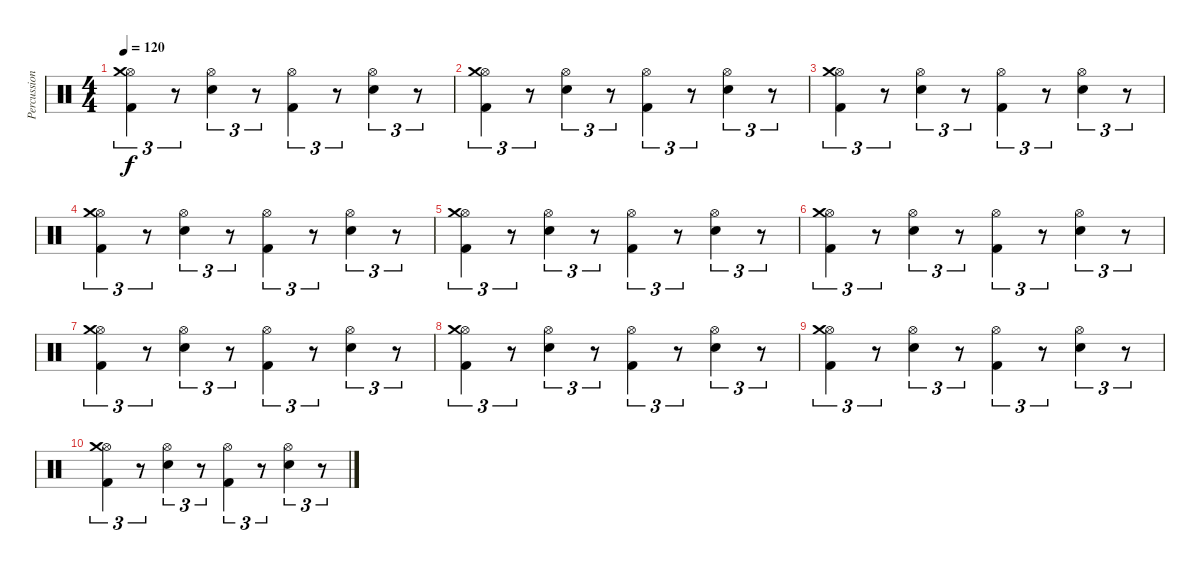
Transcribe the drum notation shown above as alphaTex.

\track ("Percussioni" "Percussion") {instrument percussion}
\staff {score}
\articulation defaults
\ts (4 4)
\tempo 120
\clef neutral
\ks c
("Kick (hit) 2" "Hi-Hat (open)" "Crash medium (hit)").4{tu (3 2) dy f} r.8{tu (3 2)} ("Electric Snare (hit)" "Hi-Hat (open)").4{tu (3 2)} r.8{tu (3 2)} ("Kick (hit) 2" "Hi-Hat (open)").4{tu (3 2)} r.8{tu (3 2)} ("Electric Snare (hit)" "Hi-Hat (open)").4{tu (3 2)} r.8{tu (3 2)} |
("Kick (hit) 2" "Hi-Hat (open)" "Crash medium (hit)").4{tu (3 2)} r.8{tu (3 2)} ("Electric Snare (hit)" "Hi-Hat (open)").4{tu (3 2)} r.8{tu (3 2)} ("Kick (hit) 2" "Hi-Hat (open)").4{tu (3 2)} r.8{tu (3 2)} ("Electric Snare (hit)" "Hi-Hat (open)").4{tu (3 2)} r.8{tu (3 2)} |
("Kick (hit) 2" "Hi-Hat (open)" "Crash medium (hit)").4{tu (3 2)} r.8{tu (3 2)} ("Electric Snare (hit)" "Hi-Hat (open)").4{tu (3 2)} r.8{tu (3 2)} ("Kick (hit) 2" "Hi-Hat (open)").4{tu (3 2)} r.8{tu (3 2)} ("Electric Snare (hit)" "Hi-Hat (open)").4{tu (3 2)} r.8{tu (3 2)} |
("Kick (hit) 2" "Hi-Hat (open)" "Crash medium (hit)").4{tu (3 2)} r.8{tu (3 2)} ("Electric Snare (hit)" "Hi-Hat (open)").4{tu (3 2)} r.8{tu (3 2)} ("Kick (hit) 2" "Hi-Hat (open)").4{tu (3 2)} r.8{tu (3 2)} ("Electric Snare (hit)" "Hi-Hat (open)").4{tu (3 2)} r.8{tu (3 2)} |
("Kick (hit) 2" "Hi-Hat (open)" "Crash medium (hit)").4{tu (3 2)} r.8{tu (3 2)} ("Electric Snare (hit)" "Hi-Hat (open)").4{tu (3 2)} r.8{tu (3 2)} ("Kick (hit) 2" "Hi-Hat (open)").4{tu (3 2)} r.8{tu (3 2)} ("Electric Snare (hit)" "Hi-Hat (open)").4{tu (3 2)} r.8{tu (3 2)} |
("Kick (hit) 2" "Hi-Hat (open)" "Crash medium (hit)").4{tu (3 2)} r.8{tu (3 2)} ("Electric Snare (hit)" "Hi-Hat (open)").4{tu (3 2)} r.8{tu (3 2)} ("Kick (hit) 2" "Hi-Hat (open)").4{tu (3 2)} r.8{tu (3 2)} ("Electric Snare (hit)" "Hi-Hat (open)").4{tu (3 2)} r.8{tu (3 2)} |
("Kick (hit) 2" "Hi-Hat (open)" "Crash medium (hit)").4{tu (3 2)} r.8{tu (3 2)} ("Electric Snare (hit)" "Hi-Hat (open)").4{tu (3 2)} r.8{tu (3 2)} ("Kick (hit) 2" "Hi-Hat (open)").4{tu (3 2)} r.8{tu (3 2)} ("Electric Snare (hit)" "Hi-Hat (open)").4{tu (3 2)} r.8{tu (3 2)} |
("Kick (hit) 2" "Hi-Hat (open)" "Crash medium (hit)").4{tu (3 2)} r.8{tu (3 2)} ("Electric Snare (hit)" "Hi-Hat (open)").4{tu (3 2)} r.8{tu (3 2)} ("Kick (hit) 2" "Hi-Hat (open)").4{tu (3 2)} r.8{tu (3 2)} ("Electric Snare (hit)" "Hi-Hat (open)").4{tu (3 2)} r.8{tu (3 2)} |
("Kick (hit) 2" "Hi-Hat (open)" "Crash medium (hit)").4{tu (3 2)} r.8{tu (3 2)} ("Electric Snare (hit)" "Hi-Hat (open)").4{tu (3 2)} r.8{tu (3 2)} ("Kick (hit) 2" "Hi-Hat (open)").4{tu (3 2)} r.8{tu (3 2)} ("Electric Snare (hit)" "Hi-Hat (open)").4{tu (3 2)} r.8{tu (3 2)} |
("Kick (hit) 2" "Hi-Hat (open)" "Crash medium (hit)").4{tu (3 2)} r.8{tu (3 2)} ("Electric Snare (hit)" "Hi-Hat (open)").4{tu (3 2)} r.8{tu (3 2)} ("Kick (hit) 2" "Hi-Hat (open)").4{tu (3 2)} r.8{tu (3 2)} ("Electric Snare (hit)" "Hi-Hat (open)").4{tu (3 2)} r.8{tu (3 2)}
